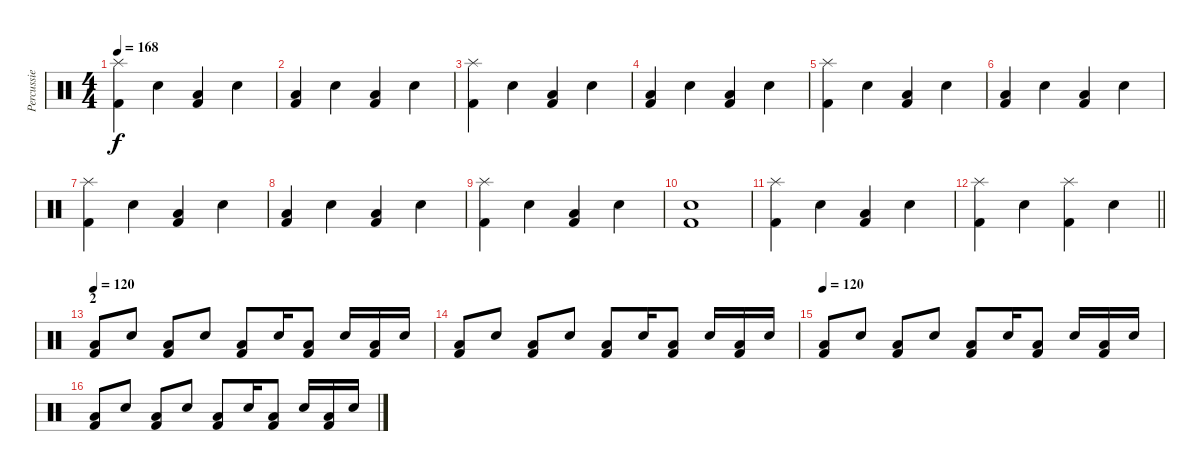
\track ("Percussie" "Percussie") {instrument percussion}
\staff {score}
\articulation defaults
\ts (4 4)
\tempo 168
\clef neutral
\ks c
("Splash (hit)" "Kick (hit) 2").4{dy f} "Snare (hit) 2".4 ("Low Floor Tom (hit)" "Kick (hit) 2").4 "Snare (hit) 2".4 |
("Low Floor Tom (hit)" "Kick (hit) 2").4 "Snare (hit) 2".4 ("Low Floor Tom (hit)" "Kick (hit) 2").4 "Snare (hit) 2".4 |
("Splash (hit)" "Kick (hit) 2").4 "Snare (hit) 2".4 ("Low Floor Tom (hit)" "Kick (hit) 2").4 "Snare (hit) 2".4 |
("Low Floor Tom (hit)" "Kick (hit) 2").4 "Snare (hit) 2".4 ("Low Floor Tom (hit)" "Kick (hit) 2").4 "Snare (hit) 2".4 |
("Splash (hit)" "Kick (hit) 2").4 "Snare (hit) 2".4 ("Low Floor Tom (hit)" "Kick (hit) 2").4 "Snare (hit) 2".4 |
("Low Floor Tom (hit)" "Kick (hit) 2").4 "Snare (hit) 2".4 ("Low Floor Tom (hit)" "Kick (hit) 2").4 "Snare (hit) 2".4 |
("Splash (hit)" "Kick (hit) 2").4 "Snare (hit) 2".4 ("Low Floor Tom (hit)" "Kick (hit) 2").4 "Snare (hit) 2".4 |
("Low Floor Tom (hit)" "Kick (hit) 2").4 "Snare (hit) 2".4 ("Low Floor Tom (hit)" "Kick (hit) 2").4 "Snare (hit) 2".4 |
("Splash (hit)" "Kick (hit) 2").4 "Snare (hit) 2".4 ("Low Floor Tom (hit)" "Kick (hit) 2").4 "Snare (hit) 2".4 |
("Snare (hit) 2" "Kick (hit) 2").1 |
("Splash (hit)" "Kick (hit) 2").4 "Snare (hit) 2".4 ("Low Floor Tom (hit)" "Kick (hit) 2").4 "Snare (hit) 2".4 |
\barLineRight lightlight
("Splash (hit)" "Kick (hit) 2").4 "Snare (hit) 2".4 ("Splash (hit)" "Kick (hit) 2").4 "Snare (hit) 2".4 |
\section ("" "2")
\tempo 120
("Low Floor Tom (hit)" "Kick (hit) 2").8 "Snare (hit) 2".8 ("Low Floor Tom (hit)" "Kick (hit) 2").8 "Snare (hit) 2".8 ("Low Floor Tom (hit)" "Kick (hit) 2").8 "Snare (hit) 2".16 ("Low Floor Tom (hit)" "Kick (hit) 2").8 "Snare (hit) 2".16 ("Low Floor Tom (hit)" "Kick (hit) 2").16 "Snare (hit) 2".16 |
("Low Floor Tom (hit)" "Kick (hit) 2").8 "Snare (hit) 2".8 ("Low Floor Tom (hit)" "Kick (hit) 2").8 "Snare (hit) 2".8 ("Low Floor Tom (hit)" "Kick (hit) 2").8 "Snare (hit) 2".16 ("Low Floor Tom (hit)" "Kick (hit) 2").8 "Snare (hit) 2".16 ("Low Floor Tom (hit)" "Kick (hit) 2").16 "Snare (hit) 2".16 |
\tempo 120
("Low Floor Tom (hit)" "Kick (hit) 2").8 "Snare (hit) 2".8 ("Low Floor Tom (hit)" "Kick (hit) 2").8 "Snare (hit) 2".8 ("Low Floor Tom (hit)" "Kick (hit) 2").8 "Snare (hit) 2".16 ("Low Floor Tom (hit)" "Kick (hit) 2").8 "Snare (hit) 2".16 ("Low Floor Tom (hit)" "Kick (hit) 2").16 "Snare (hit) 2".16 |
("Low Floor Tom (hit)" "Kick (hit) 2").8 "Snare (hit) 2".8 ("Low Floor Tom (hit)" "Kick (hit) 2").8 "Snare (hit) 2".8 ("Low Floor Tom (hit)" "Kick (hit) 2").8 "Snare (hit) 2".16 ("Low Floor Tom (hit)" "Kick (hit) 2").8 "Snare (hit) 2".16 ("Low Floor Tom (hit)" "Kick (hit) 2").16 "Snare (hit) 2".16
